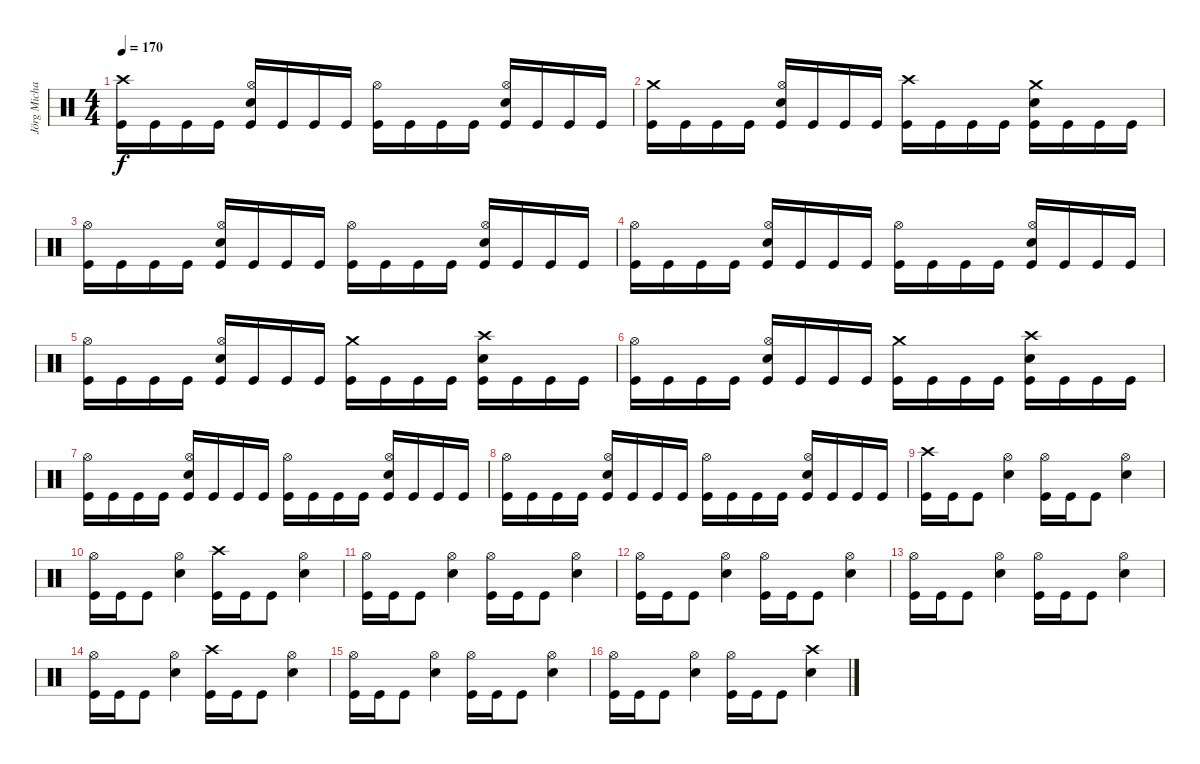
\track ("Jörg Michael" "Jörg Micha") {instrument percussion}
\staff {score}
\articulation defaults
\ts (4 4)
\tempo 170
\clef neutral
\ks c
("Crash high (hit)" "Kick (hit)").16{dy f} "Kick (hit)".16 "Kick (hit)".16 "Kick (hit)".16 ("Hi-Hat (open)" "Electric Snare (hit)" "Kick (hit)").16 "Kick (hit)".16 "Kick (hit)".16 "Kick (hit)".16 ("Hi-Hat (open)" "Kick (hit)").16 "Kick (hit)".16 "Kick (hit)".16 "Kick (hit)".16 ("Hi-Hat (open)" "Electric Snare (hit)" "Kick (hit)").16 "Kick (hit)".16 "Kick (hit)".16 "Kick (hit)".16 |
("Crash medium (hit)" "Kick (hit)").16 "Kick (hit)".16 "Kick (hit)".16 "Kick (hit)".16 ("Hi-Hat (open)" "Electric Snare (hit)" "Kick (hit)").16 "Kick (hit)".16 "Kick (hit)".16 "Kick (hit)".16 ("Crash high (hit)" "Kick (hit)").16 "Kick (hit)".16 "Kick (hit)".16 "Kick (hit)".16 ("Crash medium (hit)" "Electric Snare (hit)" "Kick (hit)").16 "Kick (hit)".16 "Kick (hit)".16 "Kick (hit)".16 |
("Hi-Hat (open)" "Kick (hit)").16 "Kick (hit)".16 "Kick (hit)".16 "Kick (hit)".16 ("Hi-Hat (open)" "Electric Snare (hit)" "Kick (hit)").16 "Kick (hit)".16 "Kick (hit)".16 "Kick (hit)".16 ("Hi-Hat (open)" "Kick (hit)").16 "Kick (hit)".16 "Kick (hit)".16 "Kick (hit)".16 ("Hi-Hat (open)" "Electric Snare (hit)" "Kick (hit)").16 "Kick (hit)".16 "Kick (hit)".16 "Kick (hit)".16 |
("Hi-Hat (open)" "Kick (hit)").16 "Kick (hit)".16 "Kick (hit)".16 "Kick (hit)".16 ("Hi-Hat (open)" "Electric Snare (hit)" "Kick (hit)").16 "Kick (hit)".16 "Kick (hit)".16 "Kick (hit)".16 ("Hi-Hat (open)" "Kick (hit)").16 "Kick (hit)".16 "Kick (hit)".16 "Kick (hit)".16 ("Hi-Hat (open)" "Electric Snare (hit)" "Kick (hit)").16 "Kick (hit)".16 "Kick (hit)".16 "Kick (hit)".16 |
("Hi-Hat (open)" "Kick (hit)").16 "Kick (hit)".16 "Kick (hit)".16 "Kick (hit)".16 ("Hi-Hat (open)" "Electric Snare (hit)" "Kick (hit)").16 "Kick (hit)".16 "Kick (hit)".16 "Kick (hit)".16 ("Crash medium (hit)" "Kick (hit)").16 "Kick (hit)".16 "Kick (hit)".16 "Kick (hit)".16 ("Crash high (hit)" "Electric Snare (hit)" "Kick (hit)").16 "Kick (hit)".16 "Kick (hit)".16 "Kick (hit)".16 |
("Hi-Hat (open)" "Kick (hit)").16 "Kick (hit)".16 "Kick (hit)".16 "Kick (hit)".16 ("Hi-Hat (open)" "Electric Snare (hit)" "Kick (hit)").16 "Kick (hit)".16 "Kick (hit)".16 "Kick (hit)".16 ("Crash medium (hit)" "Kick (hit)").16 "Kick (hit)".16 "Kick (hit)".16 "Kick (hit)".16 ("Crash high (hit)" "Electric Snare (hit)" "Kick (hit)").16 "Kick (hit)".16 "Kick (hit)".16 "Kick (hit)".16 |
("Hi-Hat (open)" "Kick (hit)").16 "Kick (hit)".16 "Kick (hit)".16 "Kick (hit)".16 ("Hi-Hat (open)" "Electric Snare (hit)" "Kick (hit)").16 "Kick (hit)".16 "Kick (hit)".16 "Kick (hit)".16 ("Hi-Hat (open)" "Kick (hit)").16 "Kick (hit)".16 "Kick (hit)".16 "Kick (hit)".16 ("Hi-Hat (open)" "Electric Snare (hit)" "Kick (hit)").16 "Kick (hit)".16 "Kick (hit)".16 "Kick (hit)".16 |
("Hi-Hat (open)" "Kick (hit)").16 "Kick (hit)".16 "Kick (hit)".16 "Kick (hit)".16 ("Hi-Hat (open)" "Electric Snare (hit)" "Kick (hit)").16 "Kick (hit)".16 "Kick (hit)".16 "Kick (hit)".16 ("Hi-Hat (open)" "Kick (hit)").16 "Kick (hit)".16 "Kick (hit)".16 "Kick (hit)".16 ("Hi-Hat (open)" "Electric Snare (hit)" "Kick (hit)").16 "Kick (hit)".16 "Kick (hit)".16 "Kick (hit)".16 |
("Crash high (hit)" "Kick (hit)").16 "Kick (hit)".16 "Kick (hit)".8 ("Hi-Hat (open)" "Electric Snare (hit)").4 ("Hi-Hat (open)" "Kick (hit)").16 "Kick (hit)".16 "Kick (hit)".8 ("Hi-Hat (open)" "Electric Snare (hit)").4 |
("Hi-Hat (open)" "Kick (hit)").16 "Kick (hit)".16 "Kick (hit)".8 ("Hi-Hat (open)" "Electric Snare (hit)").4 ("Crash high (hit)" "Kick (hit)").16 "Kick (hit)".16 "Kick (hit)".8 ("Hi-Hat (open)" "Electric Snare (hit)").4 |
("Hi-Hat (open)" "Kick (hit)").16 "Kick (hit)".16 "Kick (hit)".8 ("Hi-Hat (open)" "Electric Snare (hit)").4 ("Hi-Hat (open)" "Kick (hit)").16 "Kick (hit)".16 "Kick (hit)".8 ("Hi-Hat (open)" "Electric Snare (hit)").4 |
("Hi-Hat (open)" "Kick (hit)").16 "Kick (hit)".16 "Kick (hit)".8 ("Hi-Hat (open)" "Electric Snare (hit)").4 ("Hi-Hat (open)" "Kick (hit)").16 "Kick (hit)".16 "Kick (hit)".8 ("Hi-Hat (open)" "Electric Snare (hit)").4 |
("Hi-Hat (open)" "Kick (hit)").16 "Kick (hit)".16 "Kick (hit)".8 ("Hi-Hat (open)" "Electric Snare (hit)").4 ("Hi-Hat (open)" "Kick (hit)").16 "Kick (hit)".16 "Kick (hit)".8 ("Hi-Hat (open)" "Electric Snare (hit)").4 |
("Hi-Hat (open)" "Kick (hit)").16 "Kick (hit)".16 "Kick (hit)".8 ("Hi-Hat (open)" "Electric Snare (hit)").4 ("Crash high (hit)" "Kick (hit)").16 "Kick (hit)".16 "Kick (hit)".8 ("Hi-Hat (open)" "Electric Snare (hit)").4 |
("Hi-Hat (open)" "Kick (hit)").16 "Kick (hit)".16 "Kick (hit)".8 ("Hi-Hat (open)" "Electric Snare (hit)").4 ("Hi-Hat (open)" "Kick (hit)").16 "Kick (hit)".16 "Kick (hit)".8 ("Hi-Hat (open)" "Electric Snare (hit)").4 |
("Hi-Hat (open)" "Kick (hit)").16 "Kick (hit)".16 "Kick (hit)".8 ("Hi-Hat (open)" "Electric Snare (hit)").4 ("Hi-Hat (open)" "Kick (hit)").16 "Kick (hit)".16 "Kick (hit)".8 ("Crash high (hit)" "Electric Snare (hit)").4
